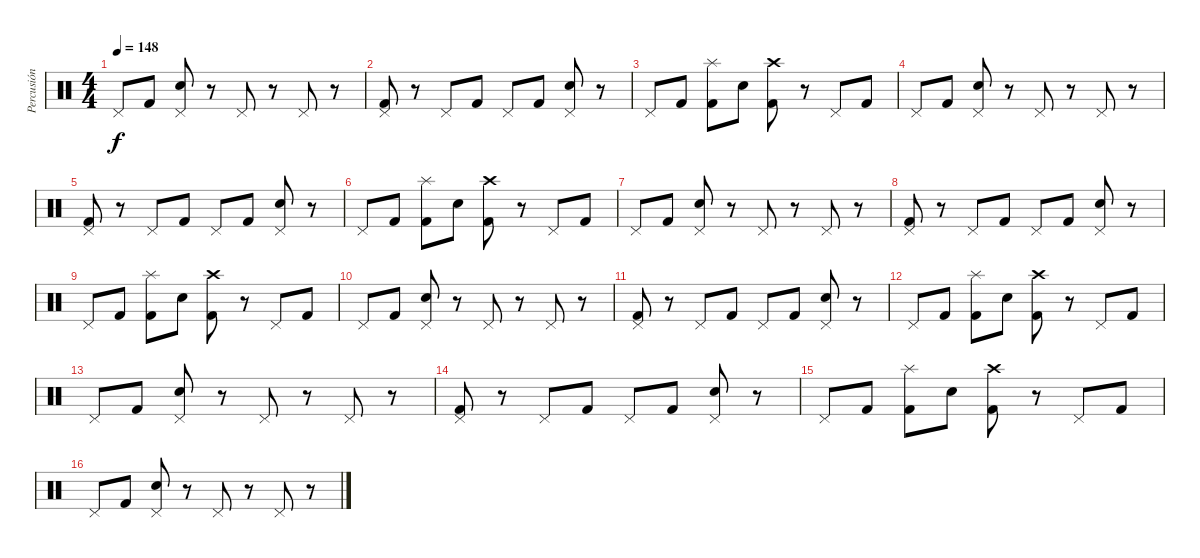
\track ("Percusión" "Percusión") {instrument percussion}
\staff {score}
\articulation defaults
\ts (4 4)
\tempo 148
\clef neutral
\ks c "Pedal Hi-Hat (hit)".8{dy f} "Kick (hit) 2".8
("Pedal Hi-Hat (hit)" "Snare (hit) 2").8 r.8 "Pedal Hi-Hat (hit)".8 r.8 "Pedal Hi-Hat (hit)".8 r.8 |
("Pedal Hi-Hat (hit)" "Kick (hit) 2").8 r.8 "Pedal Hi-Hat (hit)".8 "Kick (hit) 2".8 "Pedal Hi-Hat (hit)".8 "Kick (hit) 2".8 ("Pedal Hi-Hat (hit)" "Snare (hit) 2").8 r.8 |
"Pedal Hi-Hat (hit)".8 "Kick (hit) 2".8 ("Splash (hit)" "Kick (hit) 2").8 "Snare (hit) 2".8 ("Crash high (hit)" "Kick (hit) 2").8 r.8 "Pedal Hi-Hat (hit)".8 "Kick (hit) 2".8 |
"Pedal Hi-Hat (hit)".8 "Kick (hit) 2".8 ("Pedal Hi-Hat (hit)" "Snare (hit) 2").8 r.8 "Pedal Hi-Hat (hit)".8 r.8 "Pedal Hi-Hat (hit)".8 r.8 |
("Pedal Hi-Hat (hit)" "Kick (hit) 2").8 r.8 "Pedal Hi-Hat (hit)".8 "Kick (hit) 2".8 "Pedal Hi-Hat (hit)".8 "Kick (hit) 2".8 ("Pedal Hi-Hat (hit)" "Snare (hit) 2").8 r.8 |
"Pedal Hi-Hat (hit)".8 "Kick (hit) 2".8 ("Splash (hit)" "Kick (hit) 2").8 "Snare (hit) 2".8 ("Crash high (hit)" "Kick (hit) 2").8 r.8 "Pedal Hi-Hat (hit)".8 "Kick (hit) 2".8 |
"Pedal Hi-Hat (hit)".8 "Kick (hit) 2".8 ("Pedal Hi-Hat (hit)" "Snare (hit) 2").8 r.8 "Pedal Hi-Hat (hit)".8 r.8 "Pedal Hi-Hat (hit)".8 r.8 |
("Pedal Hi-Hat (hit)" "Kick (hit) 2").8 r.8 "Pedal Hi-Hat (hit)".8 "Kick (hit) 2".8 "Pedal Hi-Hat (hit)".8 "Kick (hit) 2".8 ("Pedal Hi-Hat (hit)" "Snare (hit) 2").8 r.8 |
"Pedal Hi-Hat (hit)".8 "Kick (hit) 2".8 ("Splash (hit)" "Kick (hit) 2").8 "Snare (hit) 2".8 ("Crash high (hit)" "Kick (hit) 2").8 r.8 "Pedal Hi-Hat (hit)".8 "Kick (hit) 2".8 |
"Pedal Hi-Hat (hit)".8 "Kick (hit) 2".8 ("Pedal Hi-Hat (hit)" "Snare (hit) 2").8 r.8 "Pedal Hi-Hat (hit)".8 r.8 "Pedal Hi-Hat (hit)".8 r.8 |
("Pedal Hi-Hat (hit)" "Kick (hit) 2").8 r.8 "Pedal Hi-Hat (hit)".8 "Kick (hit) 2".8 "Pedal Hi-Hat (hit)".8 "Kick (hit) 2".8 ("Pedal Hi-Hat (hit)" "Snare (hit) 2").8 r.8 |
"Pedal Hi-Hat (hit)".8 "Kick (hit) 2".8 ("Splash (hit)" "Kick (hit) 2").8 "Snare (hit) 2".8 ("Crash high (hit)" "Kick (hit) 2").8 r.8 "Pedal Hi-Hat (hit)".8 "Kick (hit) 2".8 |
"Pedal Hi-Hat (hit)".8 "Kick (hit) 2".8 ("Pedal Hi-Hat (hit)" "Snare (hit) 2").8 r.8 "Pedal Hi-Hat (hit)".8 r.8 "Pedal Hi-Hat (hit)".8 r.8 |
("Pedal Hi-Hat (hit)" "Kick (hit) 2").8 r.8 "Pedal Hi-Hat (hit)".8 "Kick (hit) 2".8 "Pedal Hi-Hat (hit)".8 "Kick (hit) 2".8 ("Pedal Hi-Hat (hit)" "Snare (hit) 2").8 r.8 |
"Pedal Hi-Hat (hit)".8 "Kick (hit) 2".8 ("Splash (hit)" "Kick (hit) 2").8 "Snare (hit) 2".8 ("Crash high (hit)" "Kick (hit) 2").8 r.8 "Pedal Hi-Hat (hit)".8 "Kick (hit) 2".8 |
"Pedal Hi-Hat (hit)".8 "Kick (hit) 2".8 ("Pedal Hi-Hat (hit)" "Snare (hit) 2").8 r.8 "Pedal Hi-Hat (hit)".8 r.8 "Pedal Hi-Hat (hit)".8 r.8
